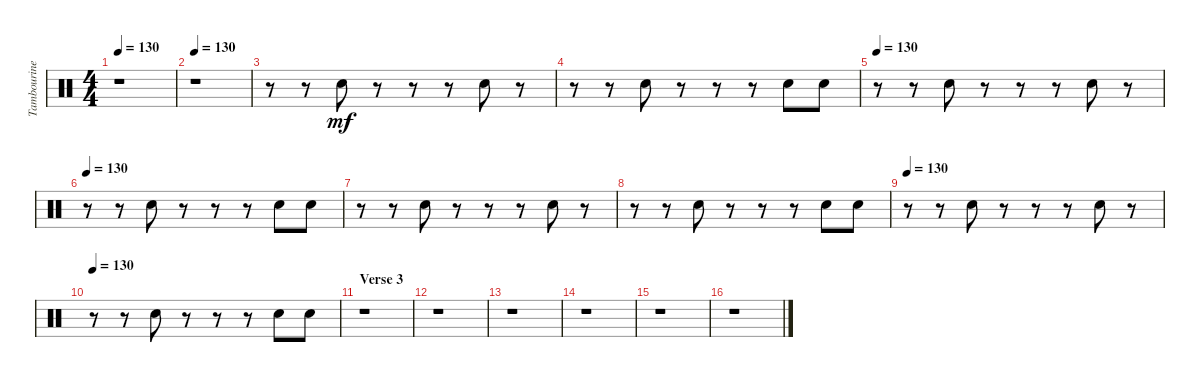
\track ("Tambourine" "Tambourine") {instrument percussion}
\staff {score}
\articulation defaults
\ts (4 4)
\tempo 130
\clef neutral
\ks c
r.1{dy mf} |
\tempo 130
r.1 |
r.8 r.8 "Hand Clap (hit)".8 r.8 r.8 r.8 "Hand Clap (hit)".8 r.8 |
r.8 r.8 "Hand Clap (hit)".8 r.8 r.8 r.8 "Hand Clap (hit)".8 "Hand Clap (hit)".8 |
\tempo 130
r.8 r.8 "Hand Clap (hit)".8 r.8 r.8 r.8 "Hand Clap (hit)".8 r.8 |
\tempo 130
r.8 r.8 "Hand Clap (hit)".8 r.8 r.8 r.8 "Hand Clap (hit)".8 "Hand Clap (hit)".8 |
r.8 r.8 "Hand Clap (hit)".8 r.8 r.8 r.8 "Hand Clap (hit)".8 r.8 |
r.8 r.8 "Hand Clap (hit)".8 r.8 r.8 r.8 "Hand Clap (hit)".8 "Hand Clap (hit)".8 |
\tempo 130
r.8 r.8 "Hand Clap (hit)".8 r.8 r.8 r.8 "Hand Clap (hit)".8 r.8 |
\tempo 130
r.8 r.8 "Hand Clap (hit)".8 r.8 r.8 r.8 "Hand Clap (hit)".8 "Hand Clap (hit)".8 |
\section ("" "Verse 3")
r.1 |
r.1 |
r.1 |
r.1 |
r.1 |
r.1
